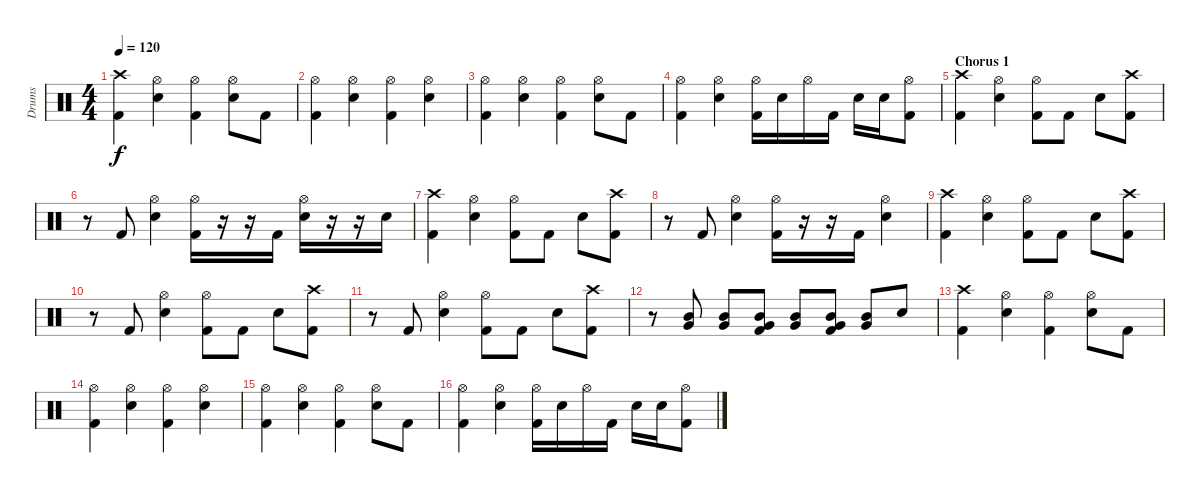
\track ("Drums" "Drums") {instrument percussion}
\staff {score}
\articulation defaults
\ts (4 4)
\tempo 120
\clef neutral
\ks c
("Crash high (hit)" "Kick (hit) 2").4{dy f} ("Hi-Hat (open)" "Electric Snare (hit)").4 ("Hi-Hat (open)" "Kick (hit) 2").4 ("Hi-Hat (open)" "Electric Snare (hit)").8 "Kick (hit) 2".8 |
("Hi-Hat (open)" "Kick (hit) 2").4 ("Hi-Hat (open)" "Electric Snare (hit)").4 ("Hi-Hat (open)" "Kick (hit) 2").4 ("Hi-Hat (open)" "Electric Snare (hit)").4 |
("Hi-Hat (open)" "Kick (hit) 2").4 ("Hi-Hat (open)" "Electric Snare (hit)").4 ("Hi-Hat (open)" "Kick (hit) 2").4 ("Hi-Hat (open)" "Electric Snare (hit)").8 "Kick (hit) 2".8 |
("Hi-Hat (open)" "Kick (hit) 2").4 ("Hi-Hat (open)" "Electric Snare (hit)").4 ("Hi-Hat (open)" "Kick (hit) 2").16 "Electric Snare (hit)".16 "Hi-Hat (open)".16 "Kick (hit) 2".16 "Electric Snare (hit)".16 "Electric Snare (hit)".16 ("Hi-Hat (open)" "Kick (hit) 2").8 |
\section ("" "Chorus 1")
("Crash high (hit)" "Kick (hit) 2").4 ("Hi-Hat (open)" "Electric Snare (hit)").4 ("Hi-Hat (open)" "Kick (hit) 2").8 "Kick (hit) 2".8 "Electric Snare (hit)".8 ("Crash high (hit)" "Kick (hit) 2").8 |
r.8 "Kick (hit) 2".8 ("Hi-Hat (open)" "Electric Snare (hit)").4 ("Hi-Hat (open)" "Kick (hit) 2").16 r.16 r.16 "Kick (hit) 2".16 ("Hi-Hat (open)" "Electric Snare (hit)").16 r.16 r.16 "Electric Snare (hit)".16 |
("Crash high (hit)" "Kick (hit) 2").4 ("Hi-Hat (open)" "Electric Snare (hit)").4 ("Hi-Hat (open)" "Kick (hit) 2").8 "Kick (hit) 2".8 "Electric Snare (hit)".8 ("Crash high (hit)" "Kick (hit) 2").8 |
r.8 "Kick (hit) 2".8 ("Hi-Hat (open)" "Electric Snare (hit)").4 ("Hi-Hat (open)" "Kick (hit) 2").16 r.16 r.16 "Kick (hit) 2".16 ("Hi-Hat (open)" "Electric Snare (hit)").4 |
("Crash high (hit)" "Kick (hit) 2").4 ("Hi-Hat (open)" "Electric Snare (hit)").4 ("Hi-Hat (open)" "Kick (hit) 2").8 "Kick (hit) 2".8 "Electric Snare (hit)".8 ("Crash high (hit)" "Kick (hit) 2").8 |
r.8 "Kick (hit) 2".8 ("Hi-Hat (open)" "Electric Snare (hit)").4 ("Hi-Hat (open)" "Kick (hit) 2").8 "Kick (hit) 2".8 "Electric Snare (hit)".8 ("Crash high (hit)" "Kick (hit) 2").8 |
r.8 "Kick (hit) 2".8 ("Hi-Hat (open)" "Electric Snare (hit)").4 ("Hi-Hat (open)" "Kick (hit) 2").8 "Kick (hit) 2".8 "Electric Snare (hit)".8 ("Crash high (hit)" "Kick (hit) 2").8 |
r.8 ("Mid Tom (hit)" "Very Low Tom (hit)").8 ("Mid Tom (hit)" "Very Low Tom (hit)").8 ("Mid Tom (hit)" "Very Low Tom (hit)" "Kick (hit) 2").8 ("Mid Tom (hit)" "Very Low Tom (hit)").8 ("Mid Tom (hit)" "Very Low Tom (hit)" "Kick (hit) 2").8 ("Mid Tom (hit)" "Very Low Tom (hit)").8 "Electric Snare (hit)".8 |
("Crash high (hit)" "Kick (hit) 2").4 ("Hi-Hat (open)" "Electric Snare (hit)").4 ("Hi-Hat (open)" "Kick (hit) 2").4 ("Hi-Hat (open)" "Electric Snare (hit)").8 "Kick (hit) 2".8 |
("Hi-Hat (open)" "Kick (hit) 2").4 ("Hi-Hat (open)" "Electric Snare (hit)").4 ("Hi-Hat (open)" "Kick (hit) 2").4 ("Hi-Hat (open)" "Electric Snare (hit)").4 |
("Hi-Hat (open)" "Kick (hit) 2").4 ("Hi-Hat (open)" "Electric Snare (hit)").4 ("Hi-Hat (open)" "Kick (hit) 2").4 ("Hi-Hat (open)" "Electric Snare (hit)").8 "Kick (hit) 2".8 |
("Hi-Hat (open)" "Kick (hit) 2").4 ("Hi-Hat (open)" "Electric Snare (hit)").4 ("Hi-Hat (open)" "Kick (hit) 2").16 "Electric Snare (hit)".16 "Hi-Hat (open)".16 "Kick (hit) 2".16 "Electric Snare (hit)".16 "Electric Snare (hit)".16 ("Hi-Hat (open)" "Kick (hit) 2").8
